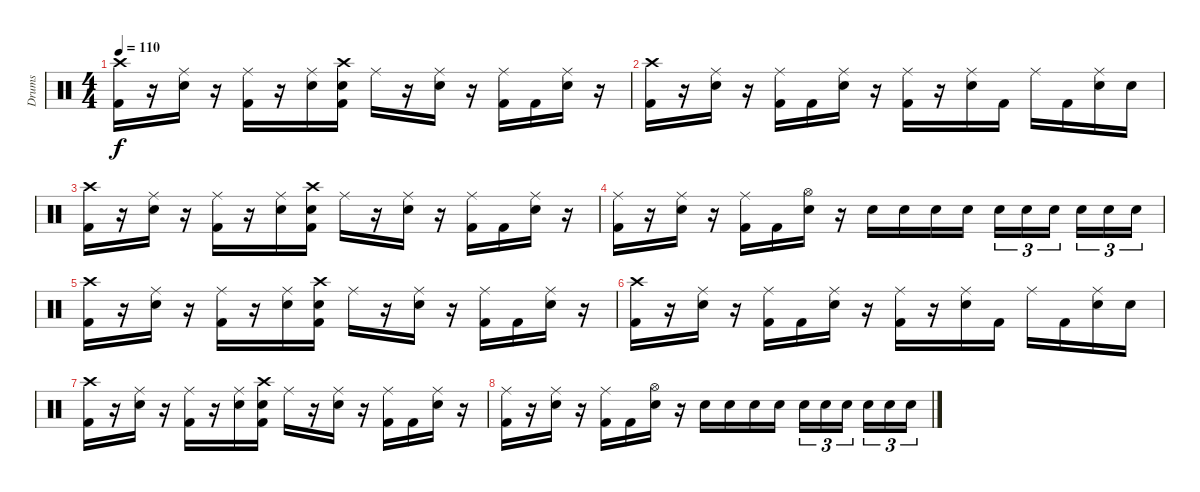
\track ("Drums" "Drums") {instrument percussion}
\staff {score}
\articulation defaults
\ts (4 4)
\tempo 110
\clef neutral
\ks c
("Crash high (hit)" "Kick (hit) 2").16{dy f} r.16 ("Ride (middle)" "Electric Snare (hit)").16 r.16 ("Ride (middle)" "Kick (hit) 2").16 r.16 ("Ride (middle)" "Electric Snare (hit)").16 ("Crash high (hit)" "Kick (hit) 2" "Electric Snare (hit)").16 "Ride (middle)".16 r.16 ("Ride (middle)" "Electric Snare (hit)").16 r.16 ("Ride (middle)" "Kick (hit) 2").16 "Kick (hit) 2".16 ("Ride (middle)" "Electric Snare (hit)").16 r.16 |
("Crash high (hit)" "Kick (hit) 2").16 r.16 ("Ride (middle)" "Electric Snare (hit)").16 r.16 ("Ride (middle)" "Kick (hit) 2").16 "Kick (hit) 2".16 ("Ride (middle)" "Electric Snare (hit)").16 r.16 ("Ride (middle)" "Kick (hit) 2").16 r.16 ("Ride (middle)" "Electric Snare (hit)").16 "Kick (hit) 2".16 "Ride (middle)".16 "Kick (hit) 2".16 ("Ride (middle)" "Electric Snare (hit)").16 "Electric Snare (hit)".16 |
("Crash high (hit)" "Kick (hit) 2").16 r.16 ("Ride (middle)" "Electric Snare (hit)").16 r.16 ("Ride (middle)" "Kick (hit) 2").16 r.16 ("Ride (middle)" "Electric Snare (hit)").16 ("Crash high (hit)" "Kick (hit) 2" "Electric Snare (hit)").16 "Ride (middle)".16 r.16 ("Ride (middle)" "Electric Snare (hit)").16 r.16 ("Ride (middle)" "Kick (hit) 2").16 "Kick (hit) 2".16 ("Ride (middle)" "Electric Snare (hit)").16 r.16 |
("Ride (middle)" "Kick (hit) 2").16 r.16 ("Ride (middle)" "Electric Snare (hit)").16 r.16 ("Ride (middle)" "Kick (hit) 2").16 "Kick (hit) 2".16 ("Hi-Hat (open)" "Electric Snare (hit)").16 r.16 "Electric Snare (hit)".16 "Electric Snare (hit)".16 "Electric Snare (hit)".16 "Electric Snare (hit)".16 "Electric Snare (hit)".16{tu (3 2)} "Electric Snare (hit)".16{tu (3 2)} "Electric Snare (hit)".16{tu (3 2)} "Electric Snare (hit)".16{tu (3 2)} "Electric Snare (hit)".16{tu (3 2)} "Electric Snare (hit)".16{tu (3 2)} |
("Crash high (hit)" "Kick (hit) 2").16 r.16 ("Ride (middle)" "Electric Snare (hit)").16 r.16 ("Ride (middle)" "Kick (hit) 2").16 r.16 ("Ride (middle)" "Electric Snare (hit)").16 ("Crash high (hit)" "Kick (hit) 2" "Electric Snare (hit)").16 "Ride (middle)".16 r.16 ("Ride (middle)" "Electric Snare (hit)").16 r.16 ("Ride (middle)" "Kick (hit) 2").16 "Kick (hit) 2".16 ("Ride (middle)" "Electric Snare (hit)").16 r.16 |
("Crash high (hit)" "Kick (hit) 2").16 r.16 ("Ride (middle)" "Electric Snare (hit)").16 r.16 ("Ride (middle)" "Kick (hit) 2").16 "Kick (hit) 2".16 ("Ride (middle)" "Electric Snare (hit)").16 r.16 ("Ride (middle)" "Kick (hit) 2").16 r.16 ("Ride (middle)" "Electric Snare (hit)").16 "Kick (hit) 2".16 "Ride (middle)".16 "Kick (hit) 2".16 ("Ride (middle)" "Electric Snare (hit)").16 "Electric Snare (hit)".16 |
("Crash high (hit)" "Kick (hit) 2").16 r.16 ("Ride (middle)" "Electric Snare (hit)").16 r.16 ("Ride (middle)" "Kick (hit) 2").16 r.16 ("Ride (middle)" "Electric Snare (hit)").16 ("Crash high (hit)" "Kick (hit) 2" "Electric Snare (hit)").16 "Ride (middle)".16 r.16 ("Ride (middle)" "Electric Snare (hit)").16 r.16 ("Ride (middle)" "Kick (hit) 2").16 "Kick (hit) 2".16 ("Ride (middle)" "Electric Snare (hit)").16 r.16 |
("Ride (middle)" "Kick (hit) 2").16 r.16 ("Ride (middle)" "Electric Snare (hit)").16 r.16 ("Ride (middle)" "Kick (hit) 2").16 "Kick (hit) 2".16 ("Hi-Hat (open)" "Electric Snare (hit)").16 r.16 "Electric Snare (hit)".16 "Electric Snare (hit)".16 "Electric Snare (hit)".16 "Electric Snare (hit)".16 "Electric Snare (hit)".16{tu (3 2)} "Electric Snare (hit)".16{tu (3 2)} "Electric Snare (hit)".16{tu (3 2)} "Electric Snare (hit)".16{tu (3 2)} "Electric Snare (hit)".16{tu (3 2)} "Electric Snare (hit)".16{tu (3 2)}
